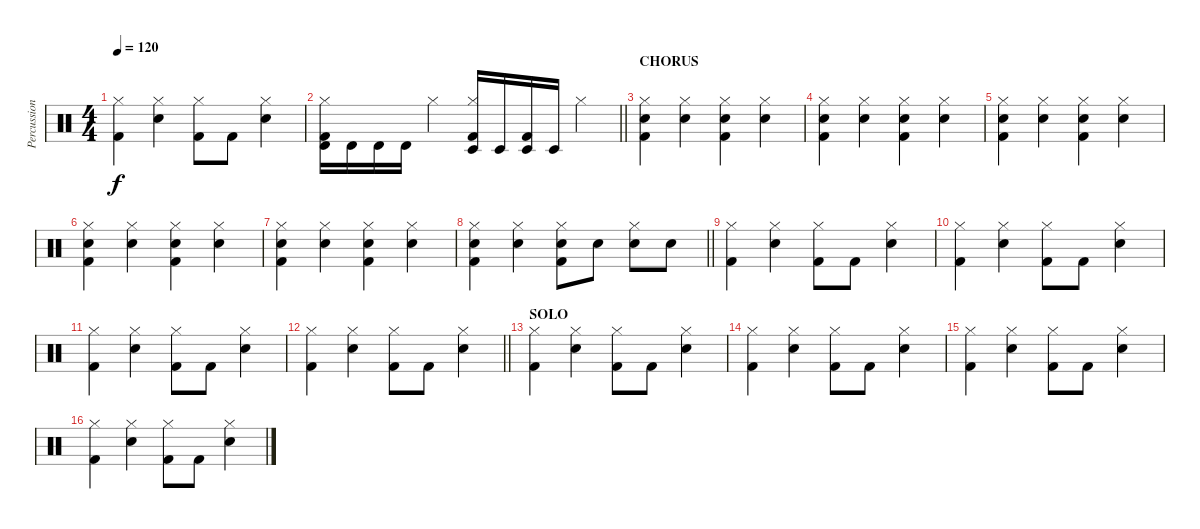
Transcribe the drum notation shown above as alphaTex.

\track ("Percussion" "Percussion") {instrument percussion}
\staff {score}
\articulation defaults
\ts (4 4)
\tempo 120
\clef neutral
\ks c
("Hi-Hat (closed)" "Kick (hit) 2").4{dy f} ("Hi-Hat (closed)" "Snare (hit) 2").4 ("Hi-Hat (closed)" "Kick (hit) 2").8 "Kick (hit) 2".8 ("Hi-Hat (closed)" "Snare (hit) 2").4 |
\barLineRight lightlight
("Hi-Hat (closed)" "Kick (hit) 2" "Timbale high (hit)").16 "Timbale high (hit)".16 "Timbale high (hit)".16 "Timbale high (hit)".16 "Hi-Hat (closed)".4 ("Hi-Hat (closed)" "Kick (hit) 2" "Timbale low (hit)").16 "Timbale low (hit)".16 ("Kick (hit) 2" "Timbale low (hit)").16 "Timbale low (hit)".16 "Hi-Hat (closed)".4 |
\section ("" "CHORUS")
("Hi-Hat (closed)" "Kick (hit) 2" "Snare (hit) 2").4 ("Hi-Hat (closed)" "Snare (hit) 2").4 ("Hi-Hat (closed)" "Kick (hit) 2" "Snare (hit) 2").4 ("Hi-Hat (closed)" "Snare (hit) 2").4 |
("Hi-Hat (closed)" "Kick (hit) 2" "Snare (hit) 2").4 ("Hi-Hat (closed)" "Snare (hit) 2").4 ("Hi-Hat (closed)" "Kick (hit) 2" "Snare (hit) 2").4 ("Hi-Hat (closed)" "Snare (hit) 2").4 |
("Hi-Hat (closed)" "Kick (hit) 2" "Snare (hit) 2").4 ("Hi-Hat (closed)" "Snare (hit) 2").4 ("Hi-Hat (closed)" "Kick (hit) 2" "Snare (hit) 2").4 ("Hi-Hat (closed)" "Snare (hit) 2").4 |
("Hi-Hat (closed)" "Kick (hit) 2" "Snare (hit) 2").4 ("Hi-Hat (closed)" "Snare (hit) 2").4 ("Hi-Hat (closed)" "Kick (hit) 2" "Snare (hit) 2").4 ("Hi-Hat (closed)" "Snare (hit) 2").4 |
("Hi-Hat (closed)" "Kick (hit) 2" "Snare (hit) 2").4 ("Hi-Hat (closed)" "Snare (hit) 2").4 ("Hi-Hat (closed)" "Kick (hit) 2" "Snare (hit) 2").4 ("Hi-Hat (closed)" "Snare (hit) 2").4 |
\barLineRight lightlight
("Hi-Hat (closed)" "Kick (hit) 2" "Snare (hit) 2").4 ("Hi-Hat (closed)" "Snare (hit) 2").4 ("Hi-Hat (closed)" "Kick (hit) 2" "Snare (hit) 2").8 "Snare (hit) 2".8 ("Hi-Hat (closed)" "Snare (hit) 2").8 "Snare (hit) 2".8 |
("Hi-Hat (closed)" "Kick (hit) 2").4 ("Hi-Hat (closed)" "Snare (hit) 2").4 ("Hi-Hat (closed)" "Kick (hit) 2").8 "Kick (hit) 2".8 ("Hi-Hat (closed)" "Snare (hit) 2").4 |
("Hi-Hat (closed)" "Kick (hit) 2").4 ("Hi-Hat (closed)" "Snare (hit) 2").4 ("Hi-Hat (closed)" "Kick (hit) 2").8 "Kick (hit) 2".8 ("Hi-Hat (closed)" "Snare (hit) 2").4 |
("Hi-Hat (closed)" "Kick (hit) 2").4 ("Hi-Hat (closed)" "Snare (hit) 2").4 ("Hi-Hat (closed)" "Kick (hit) 2").8 "Kick (hit) 2".8 ("Hi-Hat (closed)" "Snare (hit) 2").4 |
\barLineRight lightlight
("Hi-Hat (closed)" "Kick (hit) 2").4 ("Hi-Hat (closed)" "Snare (hit) 2").4 ("Hi-Hat (closed)" "Kick (hit) 2").8 "Kick (hit) 2".8 ("Hi-Hat (closed)" "Snare (hit) 2").4 |
\section ("" "SOLO")
("Hi-Hat (closed)" "Kick (hit) 2").4 ("Hi-Hat (closed)" "Snare (hit) 2").4 ("Hi-Hat (closed)" "Kick (hit) 2").8 "Kick (hit) 2".8 ("Hi-Hat (closed)" "Snare (hit) 2").4 |
("Hi-Hat (closed)" "Kick (hit) 2").4 ("Hi-Hat (closed)" "Snare (hit) 2").4 ("Hi-Hat (closed)" "Kick (hit) 2").8 "Kick (hit) 2".8 ("Hi-Hat (closed)" "Snare (hit) 2").4 |
("Hi-Hat (closed)" "Kick (hit) 2").4 ("Hi-Hat (closed)" "Snare (hit) 2").4 ("Hi-Hat (closed)" "Kick (hit) 2").8 "Kick (hit) 2".8 ("Hi-Hat (closed)" "Snare (hit) 2").4 |
("Hi-Hat (closed)" "Kick (hit) 2").4 ("Hi-Hat (closed)" "Snare (hit) 2").4 ("Hi-Hat (closed)" "Kick (hit) 2").8 "Kick (hit) 2".8 ("Hi-Hat (closed)" "Snare (hit) 2").4
